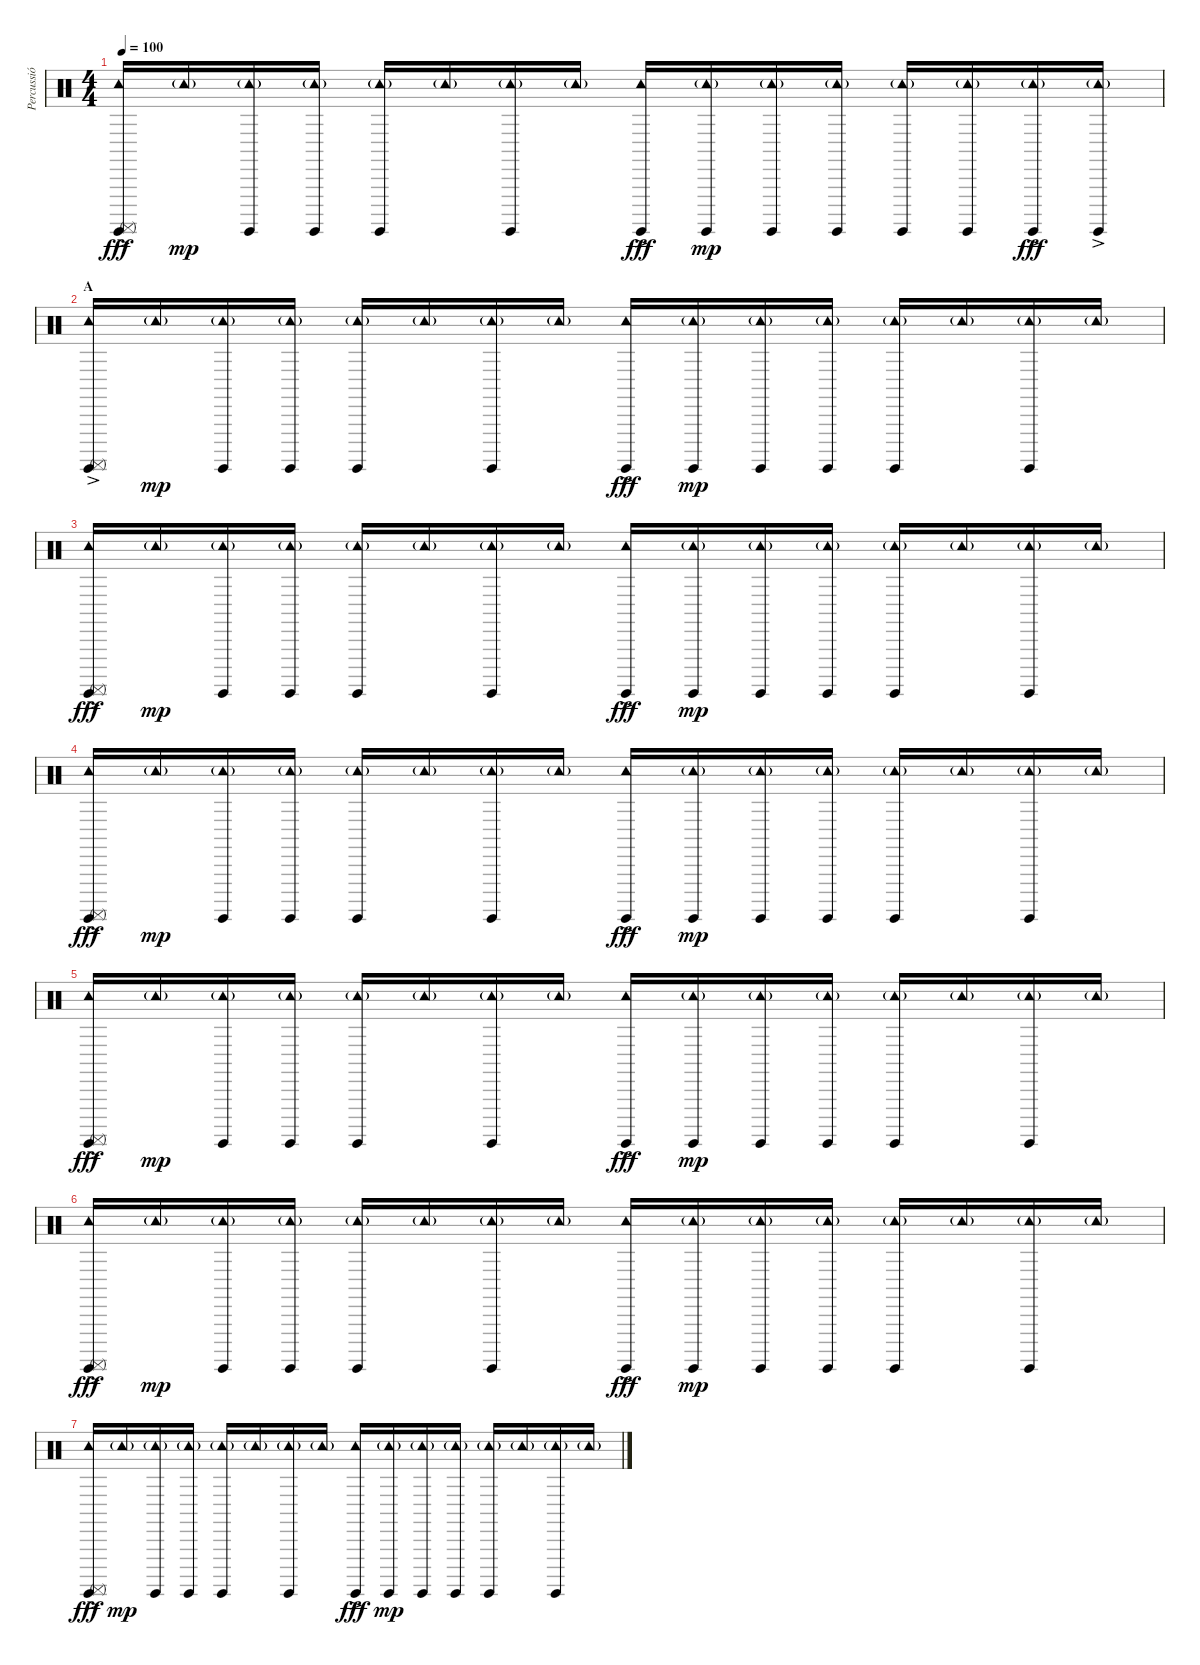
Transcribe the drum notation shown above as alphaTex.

\track ("Percussió" "Percussió") {instrument percussion}
\staff {score}
\articulation defaults
\ts (4 4)
\tempo 100
\clef neutral
\ks c
("Tambourine (hit)"{ac} "Surdo (hit)" "Surdo (mute)"{ac}).16{dy fff} "Tambourine (hit)"{g}.16{dy mp} ("Tambourine (hit)"{g} "Surdo (hit)").16 ("Tambourine (hit)"{g} "Surdo (hit)").16 ("Tambourine (hit)"{g} "Surdo (hit)").16 "Tambourine (hit)"{g}.16 ("Tambourine (hit)"{g} "Surdo (hit)").16 "Tambourine (hit)"{g}.16 ("Tambourine (hit)"{ac} "Surdo (hit)"{ac}).16{dy fff} ("Tambourine (hit)"{g} "Surdo (hit)").16{dy mp} ("Tambourine (hit)"{g} "Surdo (hit)").16 ("Tambourine (hit)"{g} "Surdo (hit)").16 ("Tambourine (hit)"{g} "Surdo (hit)").16 ("Tambourine (hit)"{g} "Surdo (hit)").16 ("Tambourine (hit)"{g} "Surdo (hit)"{ac}).16{dy fff} ("Tambourine (hit)"{g} "Surdo (hit)"{ac}).16 |
\section ("" "A")
("Tambourine (hit)"{ac} "Surdo (hit)" "Surdo (mute)"{ac}).16 "Tambourine (hit)"{g}.16{dy mp} ("Tambourine (hit)"{g} "Surdo (hit)").16 ("Tambourine (hit)"{g} "Surdo (hit)").16 ("Tambourine (hit)"{g} "Surdo (hit)").16 "Tambourine (hit)"{g}.16 ("Tambourine (hit)"{g} "Surdo (hit)").16 "Tambourine (hit)"{g}.16 ("Tambourine (hit)"{ac} "Surdo (hit)"{ac}).16{dy fff} ("Tambourine (hit)"{g} "Surdo (hit)").16{dy mp} ("Tambourine (hit)"{g} "Surdo (hit)").16 ("Tambourine (hit)"{g} "Surdo (hit)").16 ("Tambourine (hit)"{g} "Surdo (hit)").16 "Tambourine (hit)"{g}.16 ("Tambourine (hit)"{g} "Surdo (hit)").16 "Tambourine (hit)"{g}.16 |
("Tambourine (hit)"{ac} "Surdo (hit)" "Surdo (mute)"{ac}).16{dy fff} "Tambourine (hit)"{g}.16{dy mp} ("Tambourine (hit)"{g} "Surdo (hit)").16 ("Tambourine (hit)"{g} "Surdo (hit)").16 ("Tambourine (hit)"{g} "Surdo (hit)").16 "Tambourine (hit)"{g}.16 ("Tambourine (hit)"{g} "Surdo (hit)").16 "Tambourine (hit)"{g}.16 ("Tambourine (hit)"{ac} "Surdo (hit)"{ac}).16{dy fff} ("Tambourine (hit)"{g} "Surdo (hit)").16{dy mp} ("Tambourine (hit)"{g} "Surdo (hit)").16 ("Tambourine (hit)"{g} "Surdo (hit)").16 ("Tambourine (hit)"{g} "Surdo (hit)").16 "Tambourine (hit)"{g}.16 ("Tambourine (hit)"{g} "Surdo (hit)").16 "Tambourine (hit)"{g}.16 |
("Tambourine (hit)"{ac} "Surdo (hit)" "Surdo (mute)"{ac}).16{dy fff} "Tambourine (hit)"{g}.16{dy mp} ("Tambourine (hit)"{g} "Surdo (hit)").16 ("Tambourine (hit)"{g} "Surdo (hit)").16 ("Tambourine (hit)"{g} "Surdo (hit)").16 "Tambourine (hit)"{g}.16 ("Tambourine (hit)"{g} "Surdo (hit)").16 "Tambourine (hit)"{g}.16 ("Tambourine (hit)"{ac} "Surdo (hit)"{ac}).16{dy fff} ("Tambourine (hit)"{g} "Surdo (hit)").16{dy mp} ("Tambourine (hit)"{g} "Surdo (hit)").16 ("Tambourine (hit)"{g} "Surdo (hit)").16 ("Tambourine (hit)"{g} "Surdo (hit)").16 "Tambourine (hit)"{g}.16 ("Tambourine (hit)"{g} "Surdo (hit)").16 "Tambourine (hit)"{g}.16 |
("Tambourine (hit)"{ac} "Surdo (hit)" "Surdo (mute)"{ac}).16{dy fff} "Tambourine (hit)"{g}.16{dy mp} ("Tambourine (hit)"{g} "Surdo (hit)").16 ("Tambourine (hit)"{g} "Surdo (hit)").16 ("Tambourine (hit)"{g} "Surdo (hit)").16 "Tambourine (hit)"{g}.16 ("Tambourine (hit)"{g} "Surdo (hit)").16 "Tambourine (hit)"{g}.16 ("Tambourine (hit)"{ac} "Surdo (hit)"{ac}).16{dy fff} ("Tambourine (hit)"{g} "Surdo (hit)").16{dy mp} ("Tambourine (hit)"{g} "Surdo (hit)").16 ("Tambourine (hit)"{g} "Surdo (hit)").16 ("Tambourine (hit)"{g} "Surdo (hit)").16 "Tambourine (hit)"{g}.16 ("Tambourine (hit)"{g} "Surdo (hit)").16 "Tambourine (hit)"{g}.16 |
("Tambourine (hit)"{ac} "Surdo (hit)" "Surdo (mute)"{ac}).16{dy fff} "Tambourine (hit)"{g}.16{dy mp} ("Tambourine (hit)"{g} "Surdo (hit)").16 ("Tambourine (hit)"{g} "Surdo (hit)").16 ("Tambourine (hit)"{g} "Surdo (hit)").16 "Tambourine (hit)"{g}.16 ("Tambourine (hit)"{g} "Surdo (hit)").16 "Tambourine (hit)"{g}.16 ("Tambourine (hit)"{ac} "Surdo (hit)"{ac}).16{dy fff} ("Tambourine (hit)"{g} "Surdo (hit)").16{dy mp} ("Tambourine (hit)"{g} "Surdo (hit)").16 ("Tambourine (hit)"{g} "Surdo (hit)").16 ("Tambourine (hit)"{g} "Surdo (hit)").16 "Tambourine (hit)"{g}.16 ("Tambourine (hit)"{g} "Surdo (hit)").16 "Tambourine (hit)"{g}.16 |
("Tambourine (hit)"{ac} "Surdo (hit)" "Surdo (mute)"{ac}).16{dy fff} "Tambourine (hit)"{g}.16{dy mp} ("Tambourine (hit)"{g} "Surdo (hit)").16 ("Tambourine (hit)"{g} "Surdo (hit)").16 ("Tambourine (hit)"{g} "Surdo (hit)").16 "Tambourine (hit)"{g}.16 ("Tambourine (hit)"{g} "Surdo (hit)").16 "Tambourine (hit)"{g}.16 ("Tambourine (hit)"{ac} "Surdo (hit)"{ac}).16{dy fff} ("Tambourine (hit)"{g} "Surdo (hit)").16{dy mp} ("Tambourine (hit)"{g} "Surdo (hit)").16 ("Tambourine (hit)"{g} "Surdo (hit)").16 ("Tambourine (hit)"{g} "Surdo (hit)").16 "Tambourine (hit)"{g}.16 ("Tambourine (hit)"{g} "Surdo (hit)").16 "Tambourine (hit)"{g}.16
